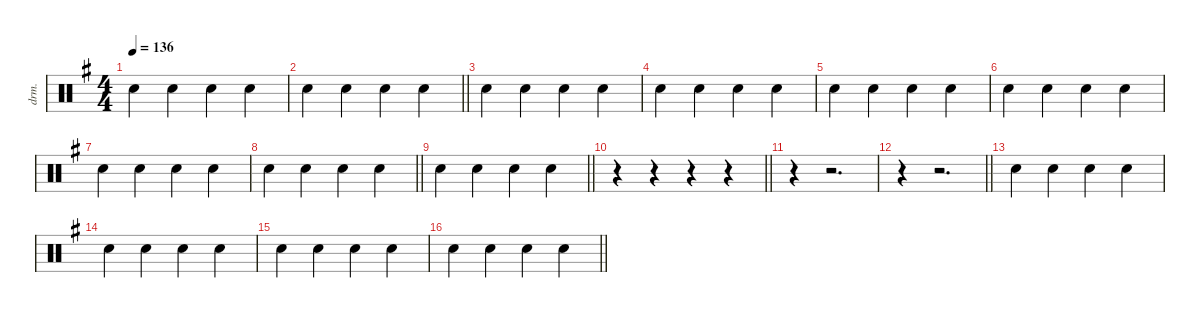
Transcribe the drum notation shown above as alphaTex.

\defaultSystemsLayout 4
\hideDynamics
\bracketExtendMode nobrackets
\otherSystemsTrackNameOrientation horizontal
\track ("Percussions" "drm.") {instrument percussion}
\staff {score}
\articulation defaults
\ts (4 4)
\tempo 136
\clef neutral
\ks g "Hand Clap (hit)"{acc forcenatural}.4{dy f beam Down} "Hand Clap (hit)"{acc forcenatural}.4{beam Down} "Hand Clap (hit)"{acc forcenatural}.4{beam Down} "Hand Clap (hit)"{acc forcenatural}.4{beam Down}
|
\barLineRight lightlight "Hand Clap (hit)"{acc forcenatural}.4{beam Down} "Hand Clap (hit)"{acc forcenatural}.4{beam Down} "Hand Clap (hit)"{acc forcenatural}.4{beam Down} "Hand Clap (hit)"{acc forcenatural}.4{beam Down}
|
"Hand Clap (hit)"{acc forcenatural}.4{beam Down} "Hand Clap (hit)"{acc forcenatural}.4{beam Down} "Hand Clap (hit)"{acc forcenatural}.4{beam Down} "Hand Clap (hit)"{acc forcenatural}.4{beam Down} |
"Hand Clap (hit)"{acc forcenatural}.4{beam Down} "Hand Clap (hit)"{acc forcenatural}.4{beam Down} "Hand Clap (hit)"{acc forcenatural}.4{beam Down} "Hand Clap (hit)"{acc forcenatural}.4{beam Down} |
"Hand Clap (hit)"{acc forcenatural}.4{beam Down} "Hand Clap (hit)"{acc forcenatural}.4{beam Down} "Hand Clap (hit)"{acc forcenatural}.4{beam Down} "Hand Clap (hit)"{acc forcenatural}.4{beam Down} |
"Hand Clap (hit)"{acc forcenatural}.4{beam Down} "Hand Clap (hit)"{acc forcenatural}.4{beam Down} "Hand Clap (hit)"{acc forcenatural}.4{beam Down} "Hand Clap (hit)"{acc forcenatural}.4{beam Down} |
"Hand Clap (hit)"{acc forcenatural}.4{beam Down} "Hand Clap (hit)"{acc forcenatural}.4{beam Down} "Hand Clap (hit)"{acc forcenatural}.4{beam Down} "Hand Clap (hit)"{acc forcenatural}.4{beam Down} |
\barLineRight lightlight "Hand Clap (hit)"{acc forcenatural}.4{beam Down} "Hand Clap (hit)"{acc forcenatural}.4{beam Down} "Hand Clap (hit)"{acc forcenatural}.4{beam Down} "Hand Clap (hit)"{acc forcenatural}.4{beam Down}
|
\barLineRight lightlight "Hand Clap (hit)"{acc forcenatural}.4{beam Down} "Hand Clap (hit)"{acc forcenatural}.4{beam Down} "Hand Clap (hit)"{acc forcenatural}.4{beam Down} "Hand Clap (hit)"{acc forcenatural}.4{beam Down}
|
\barLineRight lightlight
r.4{beam Down} r.4{beam Down} r.4{beam Down} r.4{beam Down} |
r.4{beam Down} r.2{d beam Down} |
\barLineRight lightlight
r.4{beam Down} r.2{d beam Down} |
"Hand Clap (hit)"{acc forcenatural}.4{beam Down} "Hand Clap (hit)"{acc forcenatural}.4{beam Down} "Hand Clap (hit)"{acc forcenatural}.4{beam Down} "Hand Clap (hit)"{acc forcenatural}.4{beam Down} |
"Hand Clap (hit)"{acc forcenatural}.4{beam Down} "Hand Clap (hit)"{acc forcenatural}.4{beam Down} "Hand Clap (hit)"{acc forcenatural}.4{beam Down} "Hand Clap (hit)"{acc forcenatural}.4{beam Down} |
"Hand Clap (hit)"{acc forcenatural}.4{beam Down} "Hand Clap (hit)"{acc forcenatural}.4{beam Down} "Hand Clap (hit)"{acc forcenatural}.4{beam Down} "Hand Clap (hit)"{acc forcenatural}.4{beam Down} |
\barLineRight lightlight "Hand Clap (hit)"{acc forcenatural}.4{beam Down} "Hand Clap (hit)"{acc forcenatural}.4{beam Down} "Hand Clap (hit)"{acc forcenatural}.4{beam Down} "Hand Clap (hit)"{acc forcenatural}.4{beam Down}
